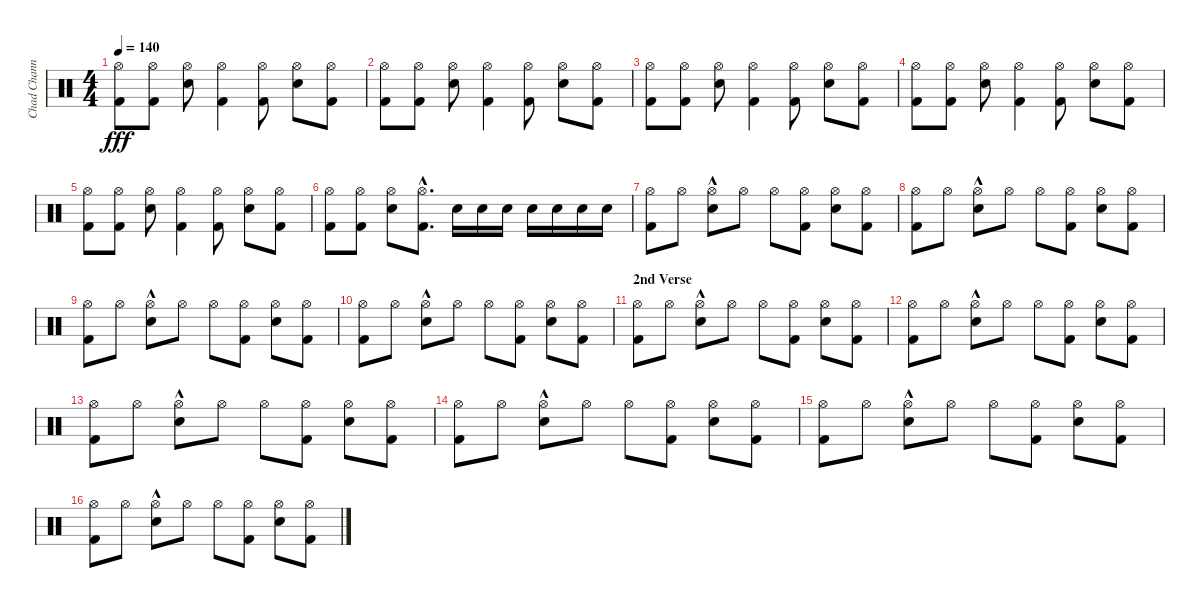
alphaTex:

\track ("Chad Channing" "Chad Chann") {instrument percussion}
\staff {score}
\articulation defaults
\ts (4 4)
\tempo 140
\clef neutral
\ks c
("Hi-Hat (open)" "Kick (hit) 2").8{dy fff} ("Hi-Hat (open)" "Kick (hit) 2").8 ("Hi-Hat (open)" "Electric Snare (hit)").8 ("Hi-Hat (open)" "Kick (hit) 2").4 ("Hi-Hat (open)" "Kick (hit) 2").8 ("Hi-Hat (open)" "Electric Snare (hit)").8 ("Hi-Hat (open)" "Kick (hit) 2").8 |
("Hi-Hat (open)" "Kick (hit) 2").8 ("Hi-Hat (open)" "Kick (hit) 2").8 ("Hi-Hat (open)" "Electric Snare (hit)").8 ("Hi-Hat (open)" "Kick (hit) 2").4 ("Hi-Hat (open)" "Kick (hit) 2").8 ("Hi-Hat (open)" "Electric Snare (hit)").8 ("Hi-Hat (open)" "Kick (hit) 2").8 |
("Hi-Hat (open)" "Kick (hit) 2").8 ("Hi-Hat (open)" "Kick (hit) 2").8 ("Hi-Hat (open)" "Electric Snare (hit)").8 ("Hi-Hat (open)" "Kick (hit) 2").4 ("Hi-Hat (open)" "Kick (hit) 2").8 ("Hi-Hat (open)" "Electric Snare (hit)").8 ("Hi-Hat (open)" "Kick (hit) 2").8 |
("Hi-Hat (open)" "Kick (hit) 2").8 ("Hi-Hat (open)" "Kick (hit) 2").8 ("Hi-Hat (open)" "Electric Snare (hit)").8 ("Hi-Hat (open)" "Kick (hit) 2").4 ("Hi-Hat (open)" "Kick (hit) 2").8 ("Hi-Hat (open)" "Electric Snare (hit)").8 ("Hi-Hat (open)" "Kick (hit) 2").8 |
("Hi-Hat (open)" "Kick (hit) 2").8 ("Hi-Hat (open)" "Kick (hit) 2").8 ("Hi-Hat (open)" "Electric Snare (hit)").8 ("Hi-Hat (open)" "Kick (hit) 2").4 ("Hi-Hat (open)" "Kick (hit) 2").8 ("Hi-Hat (open)" "Electric Snare (hit)").8 ("Hi-Hat (open)" "Kick (hit) 2").8 |
("Hi-Hat (open)" "Kick (hit) 2").8 ("Hi-Hat (open)" "Kick (hit) 2").8 ("Hi-Hat (open)" "Electric Snare (hit)").8 ("Hi-Hat (open)" "Kick (hit) 2"{hac}).8{d} "Electric Snare (hit)".16 "Electric Snare (hit)".16 "Electric Snare (hit)".16 "Electric Snare (hit)".16 "Electric Snare (hit)".16 "Electric Snare (hit)".16 "Electric Snare (hit)".16 |
("Hi-Hat (open)" "Kick (hit) 2").8 "Hi-Hat (open)".8 ("Hi-Hat (open)" "Electric Snare (hit)"{hac}).8 "Hi-Hat (open)".8 "Hi-Hat (open)".8 ("Hi-Hat (open)" "Kick (hit) 2").8 ("Hi-Hat (open)" "Electric Snare (hit)").8 ("Hi-Hat (open)" "Kick (hit) 2").8 |
("Hi-Hat (open)" "Kick (hit) 2").8 "Hi-Hat (open)".8 ("Hi-Hat (open)" "Electric Snare (hit)"{hac}).8 "Hi-Hat (open)".8 "Hi-Hat (open)".8 ("Hi-Hat (open)" "Kick (hit) 2").8 ("Hi-Hat (open)" "Electric Snare (hit)").8 ("Hi-Hat (open)" "Kick (hit) 2").8 |
("Hi-Hat (open)" "Kick (hit) 2").8 "Hi-Hat (open)".8 ("Hi-Hat (open)" "Electric Snare (hit)"{hac}).8 "Hi-Hat (open)".8 "Hi-Hat (open)".8 ("Hi-Hat (open)" "Kick (hit) 2").8 ("Hi-Hat (open)" "Electric Snare (hit)").8 ("Hi-Hat (open)" "Kick (hit) 2").8 |
("Hi-Hat (open)" "Kick (hit) 2").8 "Hi-Hat (open)".8 ("Hi-Hat (open)" "Electric Snare (hit)"{hac}).8 "Hi-Hat (open)".8 "Hi-Hat (open)".8 ("Hi-Hat (open)" "Kick (hit) 2").8 ("Hi-Hat (open)" "Electric Snare (hit)").8 ("Hi-Hat (open)" "Kick (hit) 2").8 |
\section ("" "2nd Verse")
("Hi-Hat (open)" "Kick (hit) 2").8 "Hi-Hat (open)".8 ("Hi-Hat (open)" "Electric Snare (hit)"{hac}).8 "Hi-Hat (open)".8 "Hi-Hat (open)".8 ("Hi-Hat (open)" "Kick (hit) 2").8 ("Hi-Hat (open)" "Electric Snare (hit)").8 ("Hi-Hat (open)" "Kick (hit) 2").8 |
("Hi-Hat (open)" "Kick (hit) 2").8 "Hi-Hat (open)".8 ("Hi-Hat (open)" "Electric Snare (hit)"{hac}).8 "Hi-Hat (open)".8 "Hi-Hat (open)".8 ("Hi-Hat (open)" "Kick (hit) 2").8 ("Hi-Hat (open)" "Electric Snare (hit)").8 ("Hi-Hat (open)" "Kick (hit) 2").8 |
("Hi-Hat (open)" "Kick (hit) 2").8 "Hi-Hat (open)".8 ("Hi-Hat (open)" "Electric Snare (hit)"{hac}).8 "Hi-Hat (open)".8 "Hi-Hat (open)".8 ("Hi-Hat (open)" "Kick (hit) 2").8 ("Hi-Hat (open)" "Electric Snare (hit)").8 ("Hi-Hat (open)" "Kick (hit) 2").8 |
("Hi-Hat (open)" "Kick (hit) 2").8 "Hi-Hat (open)".8 ("Hi-Hat (open)" "Electric Snare (hit)"{hac}).8 "Hi-Hat (open)".8 "Hi-Hat (open)".8 ("Hi-Hat (open)" "Kick (hit) 2").8 ("Hi-Hat (open)" "Electric Snare (hit)").8 ("Hi-Hat (open)" "Kick (hit) 2").8 |
("Hi-Hat (open)" "Kick (hit) 2").8 "Hi-Hat (open)".8 ("Hi-Hat (open)" "Electric Snare (hit)"{hac}).8 "Hi-Hat (open)".8 "Hi-Hat (open)".8 ("Hi-Hat (open)" "Kick (hit) 2").8 ("Hi-Hat (open)" "Electric Snare (hit)").8 ("Hi-Hat (open)" "Kick (hit) 2").8 |
("Hi-Hat (open)" "Kick (hit) 2").8 "Hi-Hat (open)".8 ("Hi-Hat (open)" "Electric Snare (hit)"{hac}).8 "Hi-Hat (open)".8 "Hi-Hat (open)".8 ("Hi-Hat (open)" "Kick (hit) 2").8 ("Hi-Hat (open)" "Electric Snare (hit)").8 ("Hi-Hat (open)" "Kick (hit) 2").8
